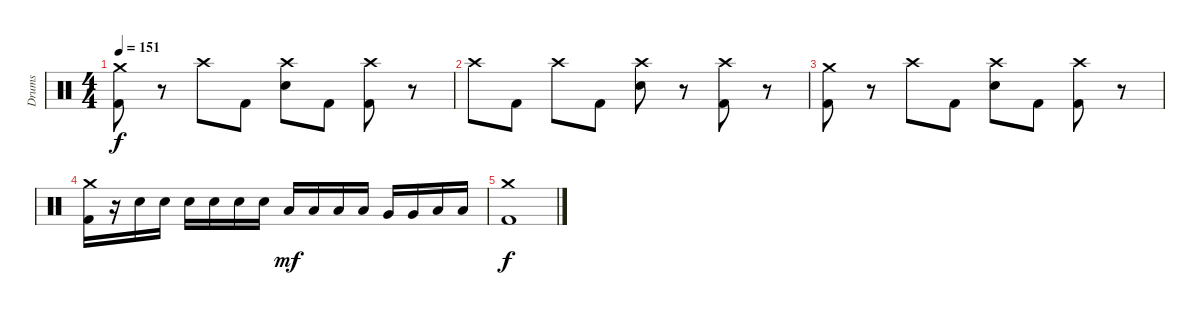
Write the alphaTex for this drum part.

\track ("Drums" "Drums") {instrument percussion}
\staff {score}
\articulation defaults
\ts (4 4)
\tempo 151
\clef neutral
\ks c
("Crash medium (hit)" "Kick (hit) 2").8{dy f} r.8 "Crash high (hit)".8 "Kick (hit) 2".8 ("Crash high (hit)" "Snare (hit) 2").8 "Kick (hit) 2".8 ("Crash high (hit)" "Kick (hit) 2").8 r.8 |
"Crash high (hit)".8 "Kick (hit) 2".8 "Crash high (hit)".8 "Kick (hit) 2".8 ("Crash high (hit)" "Snare (hit) 2").8 r.8 ("Crash high (hit)" "Kick (hit) 2").8 r.8 |
("Crash medium (hit)" "Kick (hit) 2").8 r.8 "Crash high (hit)".8 "Kick (hit) 2".8 ("Crash high (hit)" "Snare (hit) 2").8 "Kick (hit) 2".8 ("Crash high (hit)" "Kick (hit) 2").8 r.8 |
("Crash medium (hit)" "Kick (hit) 2").16 r.16 "Snare (hit) 2".16 "Snare (hit) 2".16 "Snare (hit) 2".16 "Snare (hit) 2".16 "Snare (hit) 2".16 "Snare (hit) 2".16 "Low Tom (hit)".16{dy mf} "Low Tom (hit)".16 "Low Tom (hit)".16 "Low Tom (hit)".16 "Very Low Tom (hit)".16 "Very Low Tom (hit)".16 "Low Floor Tom (hit)".16 "Low Floor Tom (hit)".16 |
("Crash medium (hit)" "Kick (hit) 2").1{dy f}
